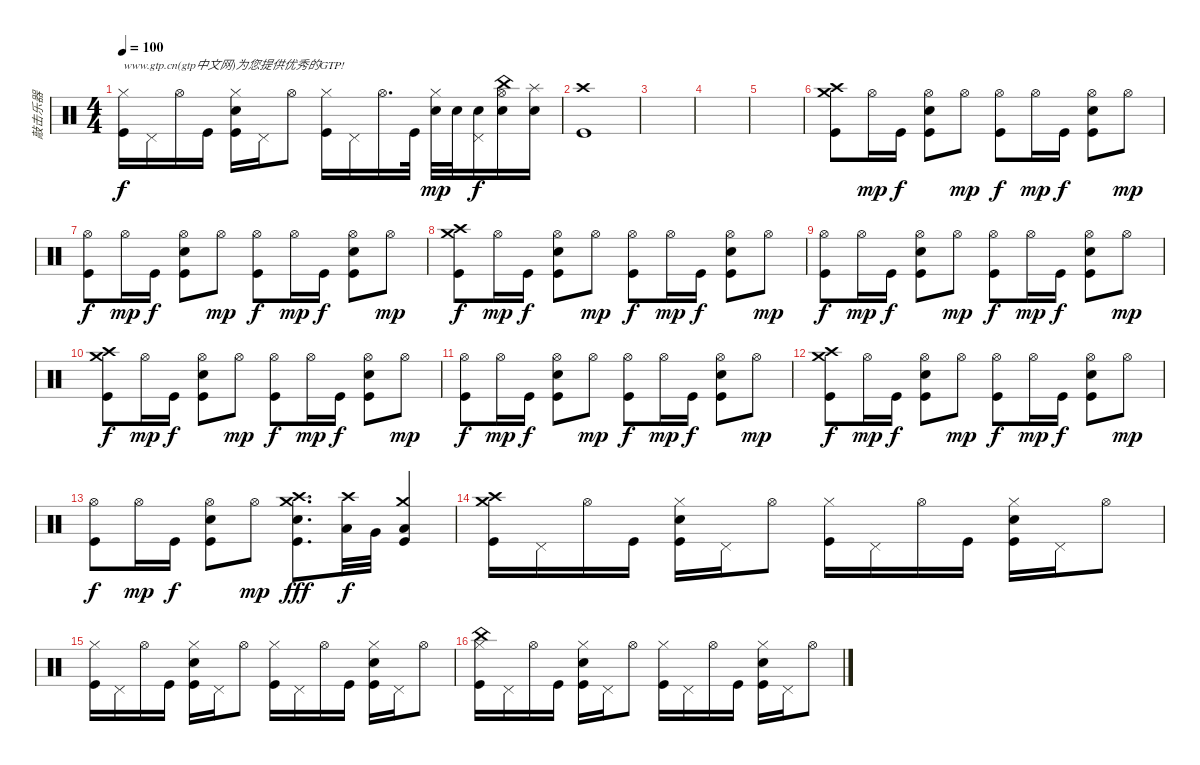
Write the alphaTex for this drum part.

\track ("敲击乐器" "敲击乐器") {instrument percussion}
\staff {score}
\articulation defaults
\ts (4 4)
\tempo 100
\clef neutral
\ks c
("Hi-Hat (closed)" "Kick (hit)").16{txt "www.gtp.cn(gtp中文网)为您提供优秀的GTP!" dy f} "Pedal Hi-Hat (hit)".16 "Hi-Hat (open)".16 "Kick (hit)".16 ("Hi-Hat (closed)" "Snare (hit) 2" "Kick (hit)").16 "Pedal Hi-Hat (hit)".16 "Hi-Hat (open)".8 ("Hi-Hat (closed)" "Kick (hit)").16 "Pedal Hi-Hat (hit)".16 "Hi-Hat (open)".16{d} "Kick (hit)".32 ("Hi-Hat (closed)" "Snare (hit) 2").32{dy mp} "Snare (hit) 2".32 ("Pedal Hi-Hat (hit)" "Snare (hit) 2").16{dy f} ("Hi-Hat (open)" "China (hit)" "Snare (hit) 2").16 ("Splash (hit)" "Snare (hit) 2").16 |
("Kick (hit)" "Crash high (hit)").1 |
|
|
|
("Kick (hit)" "Crash medium (hit)" "Crash high (hit)").8 "Hi-Hat (open)".16{dy mp} "Kick (hit)".16{dy f} ("Snare (hit) 2" "Kick (hit)" "Hi-Hat (open)").8 "Hi-Hat (open)".8{dy mp} ("Kick (hit)" "Hi-Hat (open)").8{dy f} "Hi-Hat (open)".16{dy mp} "Kick (hit)".16{dy f} ("Snare (hit) 2" "Kick (hit)" "Hi-Hat (open)").8 "Hi-Hat (open)".8{dy mp} |
("Hi-Hat (open)" "Kick (hit)").8{dy f} "Hi-Hat (open)".16{dy mp} "Kick (hit)".16{dy f} ("Hi-Hat (open)" "Snare (hit) 2" "Kick (hit)").8 "Hi-Hat (open)".8{dy mp} ("Hi-Hat (open)" "Kick (hit)").8{dy f} "Hi-Hat (open)".16{dy mp} "Kick (hit)".16{dy f} ("Hi-Hat (open)" "Snare (hit) 2" "Kick (hit)").8 "Hi-Hat (open)".8{dy mp} |
("Kick (hit)" "Crash medium (hit)" "Crash high (hit)").8{dy f} "Hi-Hat (open)".16{dy mp} "Kick (hit)".16{dy f} ("Snare (hit) 2" "Kick (hit)" "Hi-Hat (open)").8 "Hi-Hat (open)".8{dy mp} ("Kick (hit)" "Hi-Hat (open)").8{dy f} "Hi-Hat (open)".16{dy mp} "Kick (hit)".16{dy f} ("Snare (hit) 2" "Kick (hit)" "Hi-Hat (open)").8 "Hi-Hat (open)".8{dy mp} |
("Hi-Hat (open)" "Kick (hit)").8{dy f} "Hi-Hat (open)".16{dy mp} "Kick (hit)".16{dy f} ("Hi-Hat (open)" "Snare (hit) 2" "Kick (hit)").8 "Hi-Hat (open)".8{dy mp} ("Hi-Hat (open)" "Kick (hit)").8{dy f} "Hi-Hat (open)".16{dy mp} "Kick (hit)".16{dy f} ("Hi-Hat (open)" "Snare (hit) 2" "Kick (hit)").8 "Hi-Hat (open)".8{dy mp} |
("Kick (hit)" "Crash medium (hit)" "Crash high (hit)").8{dy f} "Hi-Hat (open)".16{dy mp} "Kick (hit)".16{dy f} ("Snare (hit) 2" "Kick (hit)" "Hi-Hat (open)").8 "Hi-Hat (open)".8{dy mp} ("Kick (hit)" "Hi-Hat (open)").8{dy f} "Hi-Hat (open)".16{dy mp} "Kick (hit)".16{dy f} ("Snare (hit) 2" "Kick (hit)" "Hi-Hat (open)").8 "Hi-Hat (open)".8{dy mp} |
("Hi-Hat (open)" "Kick (hit)").8{dy f} "Hi-Hat (open)".16{dy mp} "Kick (hit)".16{dy f} ("Hi-Hat (open)" "Snare (hit) 2" "Kick (hit)").8 "Hi-Hat (open)".8{dy mp} ("Hi-Hat (open)" "Kick (hit)").8{dy f} "Hi-Hat (open)".16{dy mp} "Kick (hit)".16{dy f} ("Hi-Hat (open)" "Snare (hit) 2" "Kick (hit)").8 "Hi-Hat (open)".8{dy mp} |
("Kick (hit)" "Crash medium (hit)" "Crash high (hit)").8{dy f} "Hi-Hat (open)".16{dy mp} "Kick (hit)".16{dy f} ("Snare (hit) 2" "Kick (hit)" "Hi-Hat (open)").8 "Hi-Hat (open)".8{dy mp} ("Kick (hit)" "Hi-Hat (open)").8{dy f} "Hi-Hat (open)".16{dy mp} "Kick (hit)".16{dy f} ("Snare (hit) 2" "Kick (hit)" "Hi-Hat (open)").8 "Hi-Hat (open)".8{dy mp} |
("Kick (hit)" "Hi-Hat (open)").8{dy f} "Hi-Hat (open)".16{dy mp} "Kick (hit)".16{dy f} ("Snare (hit) 2" "Kick (hit)" "Hi-Hat (open)").8 "Hi-Hat (open)".8{dy mp} ("Crash medium (hit)" "Crash high (hit)" "Snare (hit) 2" "Kick (hit)").8{d dy fff} ("Crash high (hit)" "Low Tom (hit)").32{dy f} "Very Low Tom (hit)".32 ("Crash medium (hit)" "Kick (hit)" "Low Floor Tom (hit)").4 |
("Crash medium (hit)" "Crash high (hit)" "Kick (hit)").16 "Pedal Hi-Hat (hit)".16 "Hi-Hat (open)".16 "Kick (hit)".16 ("Hi-Hat (closed)" "Snare (hit) 2" "Kick (hit)").16 "Pedal Hi-Hat (hit)".16 "Hi-Hat (open)".8 ("Hi-Hat (closed)" "Kick (hit)").16 "Pedal Hi-Hat (hit)".16 "Hi-Hat (open)".16 "Kick (hit)".16 ("Hi-Hat (closed)" "Snare (hit) 2" "Kick (hit)").16 "Pedal Hi-Hat (hit)".16 "Hi-Hat (open)".8 |
("Hi-Hat (closed)" "Kick (hit)").16 "Pedal Hi-Hat (hit)".16 "Hi-Hat (open)".16 "Kick (hit)".16 ("Hi-Hat (closed)" "Snare (hit) 2" "Kick (hit)").16 "Pedal Hi-Hat (hit)".16 "Hi-Hat (open)".8 ("Hi-Hat (closed)" "Kick (hit)").16 "Pedal Hi-Hat (hit)".16 "Hi-Hat (open)".16 "Kick (hit)".16 ("Hi-Hat (closed)" "Snare (hit) 2" "Kick (hit)").16 "Pedal Hi-Hat (hit)".16 "Hi-Hat (open)".8 |
("China (hit)" "Hi-Hat (closed)" "Kick (hit)").16 "Pedal Hi-Hat (hit)".16 "Hi-Hat (open)".16 "Kick (hit)".16 ("Hi-Hat (closed)" "Snare (hit) 2" "Kick (hit)").16 "Pedal Hi-Hat (hit)".16 "Hi-Hat (open)".8 ("Hi-Hat (closed)" "Kick (hit)").16 "Pedal Hi-Hat (hit)".16 "Hi-Hat (open)".16 "Kick (hit)".16 ("Hi-Hat (closed)" "Snare (hit) 2" "Kick (hit)").16 "Pedal Hi-Hat (hit)".16 "Hi-Hat (open)".8
